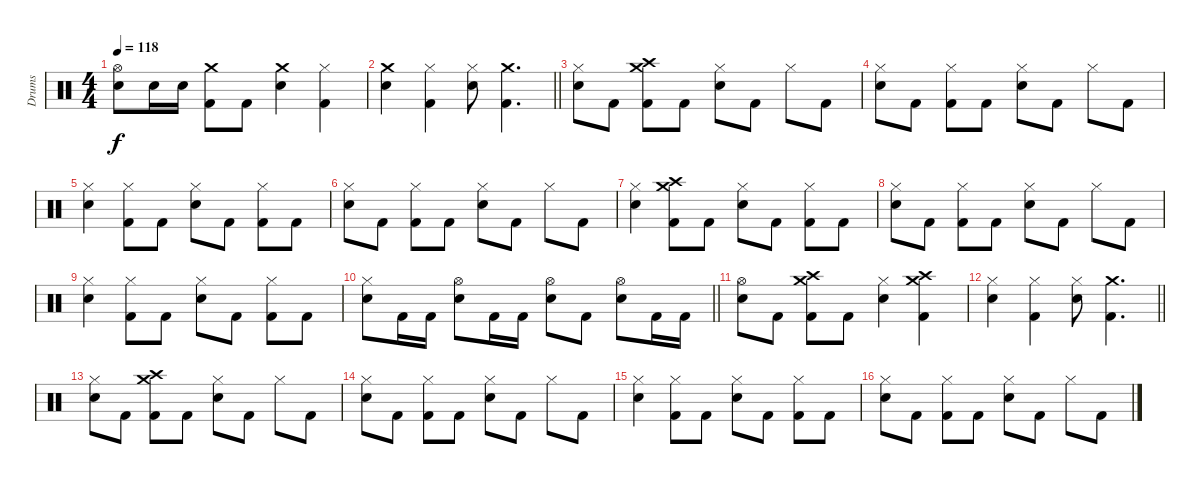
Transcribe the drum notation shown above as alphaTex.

\track ("Drums" "Drums") {instrument percussion}
\staff {score}
\articulation defaults
\ts (4 4)
\tempo 118
\clef neutral
\ks c
("Hi-Hat (open)" "Snare (hit) 2").8{dy f} "Snare (hit) 2".16 "Snare (hit) 2".16 ("Crash medium (hit)" "Kick (hit) 2").8 "Kick (hit) 2".8 ("Crash medium (hit)" "Snare (hit) 2").4 ("Hi-Hat (closed)" "Kick (hit) 2").4 |
\barLineRight lightlight
("Crash medium (hit)" "Snare (hit) 2").4 ("Hi-Hat (closed)" "Kick (hit) 2").4 ("Hi-Hat (closed)" "Snare (hit) 2").8 ("Crash medium (hit)" "Kick (hit) 2").4{d} |
("Hi-Hat (closed)" "Snare (hit) 2").8 "Kick (hit) 2".8 ("Crash medium (hit)" "Crash high (hit)" "Kick (hit) 2").8 "Kick (hit) 2".8 ("Hi-Hat (closed)" "Snare (hit) 2").8 "Kick (hit) 2".8 "Hi-Hat (closed)".8 "Kick (hit) 2".8 |
("Hi-Hat (closed)" "Snare (hit) 2").8 "Kick (hit) 2".8 ("Hi-Hat (closed)" "Kick (hit) 2").8 "Kick (hit) 2".8 ("Hi-Hat (closed)" "Snare (hit) 2").8 "Kick (hit) 2".8 "Hi-Hat (closed)".8 "Kick (hit) 2".8 |
("Hi-Hat (closed)" "Snare (hit) 2").4 ("Hi-Hat (closed)" "Kick (hit) 2").8 "Kick (hit) 2".8 ("Hi-Hat (closed)" "Snare (hit) 2").8 "Kick (hit) 2".8 ("Hi-Hat (closed)" "Kick (hit) 2").8 "Kick (hit) 2".8 |
("Hi-Hat (closed)" "Snare (hit) 2").8 "Kick (hit) 2".8 ("Hi-Hat (closed)" "Kick (hit) 2").8 "Kick (hit) 2".8 ("Hi-Hat (closed)" "Snare (hit) 2").8 "Kick (hit) 2".8 "Hi-Hat (closed)".8 "Kick (hit) 2".8 |
("Hi-Hat (closed)" "Snare (hit) 2").4 ("Crash medium (hit)" "Crash high (hit)" "Kick (hit) 2").8 "Kick (hit) 2".8 ("Hi-Hat (closed)" "Snare (hit) 2").8 "Kick (hit) 2".8 ("Hi-Hat (closed)" "Kick (hit) 2").8 "Kick (hit) 2".8 |
("Hi-Hat (closed)" "Snare (hit) 2").8 "Kick (hit) 2".8 ("Hi-Hat (closed)" "Kick (hit) 2").8 "Kick (hit) 2".8 ("Hi-Hat (closed)" "Snare (hit) 2").8 "Kick (hit) 2".8 "Hi-Hat (closed)".8 "Kick (hit) 2".8 |
("Hi-Hat (closed)" "Snare (hit) 2").4 ("Hi-Hat (closed)" "Kick (hit) 2").8 "Kick (hit) 2".8 ("Hi-Hat (closed)" "Snare (hit) 2").8 "Kick (hit) 2".8 ("Hi-Hat (closed)" "Kick (hit) 2").8 "Kick (hit) 2".8 |
\barLineRight lightlight
("Hi-Hat (closed)" "Snare (hit) 2").8 "Kick (hit) 2".16 "Kick (hit) 2".16 ("Hi-Hat (open)" "Snare (hit) 2").8 "Kick (hit) 2".16 "Kick (hit) 2".16 ("Hi-Hat (open)" "Snare (hit) 2").8 "Kick (hit) 2".8 ("Hi-Hat (open)" "Snare (hit) 2").8 "Kick (hit) 2".16 "Kick (hit) 2".16 |
("Hi-Hat (open)" "Snare (hit) 2").8 "Kick (hit) 2".8 ("Crash medium (hit)" "Crash high (hit)" "Kick (hit) 2").8 "Kick (hit) 2".8 ("Hi-Hat (closed)" "Snare (hit) 2").4 ("Crash medium (hit)" "Crash high (hit)" "Kick (hit) 2").4 |
\barLineRight lightlight
("Hi-Hat (closed)" "Snare (hit) 2").4 ("Hi-Hat (closed)" "Kick (hit) 2").4 ("Hi-Hat (closed)" "Snare (hit) 2").8 ("Crash medium (hit)" "Kick (hit) 2").4{d} |
("Hi-Hat (closed)" "Snare (hit) 2").8{volume 10} "Kick (hit) 2".8 ("Crash medium (hit)" "Crash high (hit)" "Kick (hit) 2").8 "Kick (hit) 2".8 ("Hi-Hat (closed)" "Snare (hit) 2").8 "Kick (hit) 2".8 "Hi-Hat (closed)".8 "Kick (hit) 2".8 |
("Hi-Hat (closed)" "Snare (hit) 2").8 "Kick (hit) 2".8 ("Hi-Hat (closed)" "Kick (hit) 2").8 "Kick (hit) 2".8 ("Hi-Hat (closed)" "Snare (hit) 2").8 "Kick (hit) 2".8 "Hi-Hat (closed)".8 "Kick (hit) 2".8 |
("Hi-Hat (closed)" "Snare (hit) 2").4 ("Hi-Hat (closed)" "Kick (hit) 2").8 "Kick (hit) 2".8 ("Hi-Hat (closed)" "Snare (hit) 2").8 "Kick (hit) 2".8 ("Hi-Hat (closed)" "Kick (hit) 2").8 "Kick (hit) 2".8 |
("Hi-Hat (closed)" "Snare (hit) 2").8 "Kick (hit) 2".8 ("Hi-Hat (closed)" "Kick (hit) 2").8 "Kick (hit) 2".8 ("Hi-Hat (closed)" "Snare (hit) 2").8 "Kick (hit) 2".8 "Hi-Hat (closed)".8 "Kick (hit) 2".8
